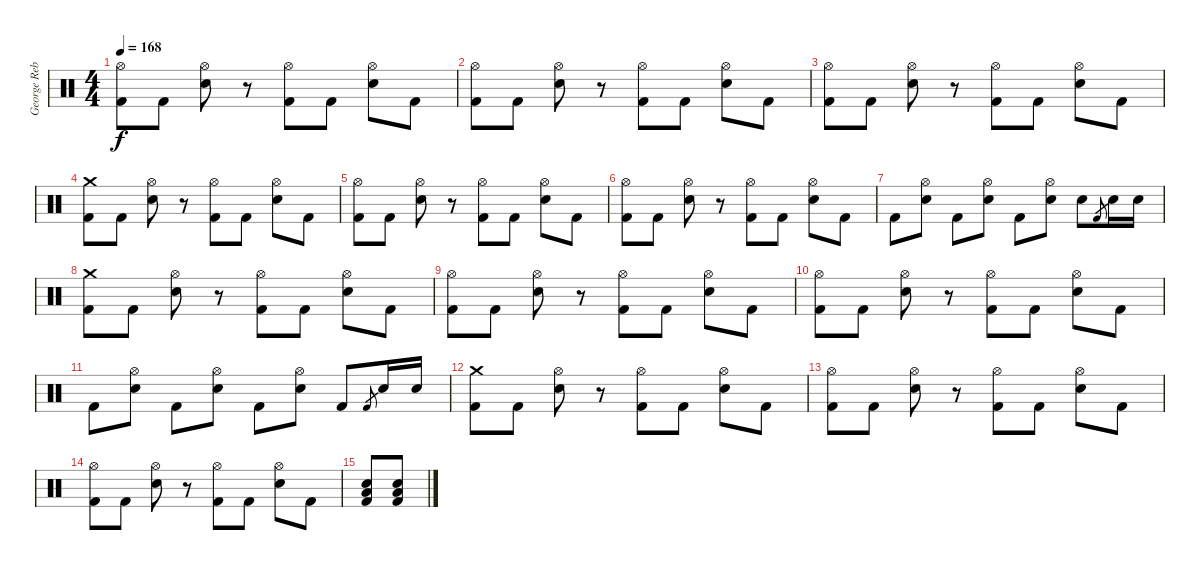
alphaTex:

\track ("George Rebelo" "George Reb") {instrument percussion}
\staff {score}
\articulation defaults
\ts (4 4)
\tempo 168
\clef neutral
\ks c
("Hi-Hat (open)" "Kick (hit) 2").8{dy f} "Kick (hit) 2".8 ("Hi-Hat (open)" "Electric Snare (hit)").8 r.8 ("Hi-Hat (open)" "Kick (hit) 2").8 "Kick (hit) 2".8 ("Hi-Hat (open)" "Electric Snare (hit)").8 "Kick (hit) 2".8 |
("Hi-Hat (open)" "Kick (hit) 2").8 "Kick (hit) 2".8 ("Hi-Hat (open)" "Electric Snare (hit)").8 r.8 ("Hi-Hat (open)" "Kick (hit) 2").8 "Kick (hit) 2".8 ("Hi-Hat (open)" "Electric Snare (hit)").8 "Kick (hit) 2".8 |
("Hi-Hat (open)" "Kick (hit) 2").8 "Kick (hit) 2".8 ("Hi-Hat (open)" "Electric Snare (hit)").8 r.8 ("Hi-Hat (open)" "Kick (hit) 2").8 "Kick (hit) 2".8 ("Hi-Hat (open)" "Electric Snare (hit)").8 "Kick (hit) 2".8 |
("Crash medium (hit)" "Kick (hit) 2").8 "Kick (hit) 2".8 ("Hi-Hat (open)" "Electric Snare (hit)").8 r.8 ("Hi-Hat (open)" "Kick (hit) 2").8 "Kick (hit) 2".8 ("Hi-Hat (open)" "Electric Snare (hit)").8 "Kick (hit) 2".8 |
("Hi-Hat (open)" "Kick (hit) 2").8 "Kick (hit) 2".8 ("Hi-Hat (open)" "Electric Snare (hit)").8 r.8 ("Hi-Hat (open)" "Kick (hit) 2").8 "Kick (hit) 2".8 ("Hi-Hat (open)" "Electric Snare (hit)").8 "Kick (hit) 2".8 |
("Hi-Hat (open)" "Kick (hit) 2").8 "Kick (hit) 2".8 ("Hi-Hat (open)" "Electric Snare (hit)").8 r.8 ("Hi-Hat (open)" "Kick (hit) 2").8 "Kick (hit) 2".8 ("Hi-Hat (open)" "Electric Snare (hit)").8 "Kick (hit) 2".8 |
"Kick (hit) 2".8 ("Hi-Hat (open)" "Electric Snare (hit)").8 "Kick (hit) 2".8 ("Hi-Hat (open)" "Electric Snare (hit)").8 "Kick (hit) 2".8 ("Hi-Hat (open)" "Electric Snare (hit)").8 "Electric Snare (hit)".8 "Kick (hit) 2".8{gr} "Electric Snare (hit)".16 "Electric Snare (hit)".16 |
("Crash medium (hit)" "Kick (hit) 2").8 "Kick (hit) 2".8 ("Hi-Hat (open)" "Electric Snare (hit)").8 r.8 ("Hi-Hat (open)" "Kick (hit) 2").8 "Kick (hit) 2".8 ("Hi-Hat (open)" "Electric Snare (hit)").8 "Kick (hit) 2".8 |
("Hi-Hat (open)" "Kick (hit) 2").8 "Kick (hit) 2".8 ("Hi-Hat (open)" "Electric Snare (hit)").8 r.8 ("Hi-Hat (open)" "Kick (hit) 2").8 "Kick (hit) 2".8 ("Hi-Hat (open)" "Electric Snare (hit)").8 "Kick (hit) 2".8 |
("Hi-Hat (open)" "Kick (hit) 2").8 "Kick (hit) 2".8 ("Hi-Hat (open)" "Electric Snare (hit)").8 r.8 ("Hi-Hat (open)" "Kick (hit) 2").8 "Kick (hit) 2".8 ("Hi-Hat (open)" "Electric Snare (hit)").8 "Kick (hit) 2".8 |
"Kick (hit) 2".8 ("Hi-Hat (open)" "Electric Snare (hit)").8 "Kick (hit) 2".8 ("Hi-Hat (open)" "Electric Snare (hit)").8 "Kick (hit) 2".8 ("Hi-Hat (open)" "Electric Snare (hit)").8 "Kick (hit) 2".8 "Kick (hit) 2".8{gr} "Electric Snare (hit)".16 "Electric Snare (hit)".16 |
("Crash medium (hit)" "Kick (hit) 2").8 "Kick (hit) 2".8 ("Hi-Hat (open)" "Electric Snare (hit)").8 r.8 ("Hi-Hat (open)" "Kick (hit) 2").8 "Kick (hit) 2".8 ("Hi-Hat (open)" "Electric Snare (hit)").8 "Kick (hit) 2".8 |
("Hi-Hat (open)" "Kick (hit) 2").8 "Kick (hit) 2".8 ("Hi-Hat (open)" "Electric Snare (hit)").8 r.8 ("Hi-Hat (open)" "Kick (hit) 2").8 "Kick (hit) 2".8 ("Hi-Hat (open)" "Electric Snare (hit)").8 "Kick (hit) 2".8 |
("Hi-Hat (open)" "Kick (hit) 2").8 "Kick (hit) 2".8 ("Hi-Hat (open)" "Electric Snare (hit)").8 r.8 ("Hi-Hat (open)" "Kick (hit) 2").8 "Kick (hit) 2".8 ("Hi-Hat (open)" "Electric Snare (hit)").8 "Kick (hit) 2".8 |
("Low Floor Tom (hit)" "Electric Snare (hit)" "Kick (hit) 2").8 ("Low Floor Tom (hit)" "Electric Snare (hit)" "Kick (hit) 2").8
